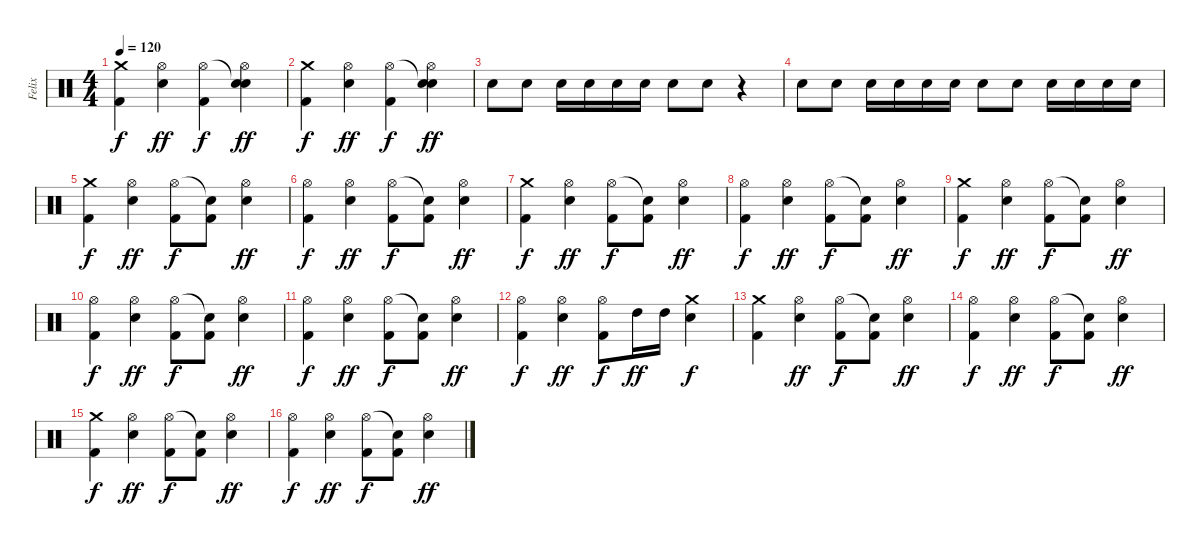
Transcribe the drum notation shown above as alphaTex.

\track ("Felix" "Felix") {instrument percussion}
\staff {score}
\articulation defaults
\ts (4 4)
\tempo 120
\clef neutral
\ks c
("Crash medium (hit)" "Kick (hit) 2").4{dy f} ("Hi-Hat (open)" "Electric Snare (hit)").4{dy ff} ("Hi-Hat (open)" "Kick (hit) 2").4{dy f} ("Snare (hit)"{t} "Hi-Hat (open)" "Electric Snare (hit)").4{dy ff} |
("Crash medium (hit)" "Kick (hit) 2").4{dy f} ("Hi-Hat (open)" "Electric Snare (hit)").4{dy ff} ("Hi-Hat (open)" "Kick (hit) 2").4{dy f} ("Snare (hit)"{t} "Hi-Hat (open)" "Electric Snare (hit)").4{dy ff} |
"Electric Snare (hit)".8 "Electric Snare (hit)".8 "Electric Snare (hit)".16 "Electric Snare (hit)".16 "Electric Snare (hit)".16 "Electric Snare (hit)".16 "Electric Snare (hit)".8 "Electric Snare (hit)".8 r.4 |
"Electric Snare (hit)".8 "Electric Snare (hit)".8 "Electric Snare (hit)".16 "Electric Snare (hit)".16 "Electric Snare (hit)".16 "Electric Snare (hit)".16 "Electric Snare (hit)".8 "Electric Snare (hit)".8 "Electric Snare (hit)".16 "Electric Snare (hit)".16 "Electric Snare (hit)".16 "Electric Snare (hit)".16 |
("Crash medium (hit)" "Kick (hit) 2").4{dy f} ("Hi-Hat (open)" "Electric Snare (hit)").4{dy ff} ("Hi-Hat (open)" "Kick (hit) 2").8{dy f} ("Snare (hit)"{t} "Kick (hit) 2").8 ("Hi-Hat (open)" "Electric Snare (hit)").4{dy ff} |
("Hi-Hat (open)" "Kick (hit) 2").4{dy f} ("Hi-Hat (open)" "Electric Snare (hit)").4{dy ff} ("Hi-Hat (open)" "Kick (hit) 2").8{dy f} ("Snare (hit)"{t} "Kick (hit) 2").8 ("Hi-Hat (open)" "Electric Snare (hit)").4{dy ff} |
("Crash medium (hit)" "Kick (hit) 2").4{dy f} ("Hi-Hat (open)" "Electric Snare (hit)").4{dy ff} ("Hi-Hat (open)" "Kick (hit) 2").8{dy f} ("Snare (hit)"{t} "Kick (hit) 2").8 ("Hi-Hat (open)" "Electric Snare (hit)").4{dy ff} |
("Hi-Hat (open)" "Kick (hit) 2").4{dy f} ("Hi-Hat (open)" "Electric Snare (hit)").4{dy ff} ("Hi-Hat (open)" "Kick (hit) 2").8{dy f} ("Snare (hit)"{t} "Kick (hit) 2").8 ("Hi-Hat (open)" "Electric Snare (hit)").4{dy ff} |
("Crash medium (hit)" "Kick (hit) 2").4{dy f} ("Hi-Hat (open)" "Electric Snare (hit)").4{dy ff} ("Hi-Hat (open)" "Kick (hit) 2").8{dy f} ("Snare (hit)"{t} "Kick (hit) 2").8 ("Hi-Hat (open)" "Electric Snare (hit)").4{dy ff} |
("Hi-Hat (open)" "Kick (hit) 2").4{dy f} ("Hi-Hat (open)" "Electric Snare (hit)").4{dy ff} ("Hi-Hat (open)" "Kick (hit) 2").8{dy f} ("Snare (hit)"{t} "Kick (hit) 2").8 ("Hi-Hat (open)" "Electric Snare (hit)").4{dy ff} |
("Hi-Hat (open)" "Kick (hit) 2").4{dy f} ("Hi-Hat (open)" "Electric Snare (hit)").4{dy ff} ("Hi-Hat (open)" "Kick (hit) 2").8{dy f} ("Snare (hit)"{t} "Kick (hit) 2").8 ("Hi-Hat (open)" "Electric Snare (hit)").4{dy ff} |
("Hi-Hat (open)" "Kick (hit) 2").4{dy f} ("Hi-Hat (open)" "Electric Snare (hit)").4{dy ff} ("Hi-Hat (open)" "Kick (hit) 2").8{dy f} "High Tom (hit)".16{dy ff} "High Tom (hit)".16 ("Crash medium (hit)" "Electric Snare (hit)").4{dy f} |
("Crash medium (hit)" "Kick (hit) 2").4 ("Hi-Hat (open)" "Electric Snare (hit)").4{dy ff} ("Hi-Hat (open)" "Kick (hit) 2").8{dy f} ("Snare (hit)"{t} "Kick (hit) 2").8 ("Hi-Hat (open)" "Electric Snare (hit)").4{dy ff} |
("Hi-Hat (open)" "Kick (hit) 2").4{dy f} ("Hi-Hat (open)" "Electric Snare (hit)").4{dy ff} ("Hi-Hat (open)" "Kick (hit) 2").8{dy f} ("Snare (hit)"{t} "Kick (hit) 2").8 ("Hi-Hat (open)" "Electric Snare (hit)").4{dy ff} |
("Crash medium (hit)" "Kick (hit) 2").4{dy f} ("Hi-Hat (open)" "Electric Snare (hit)").4{dy ff} ("Hi-Hat (open)" "Kick (hit) 2").8{dy f} ("Snare (hit)"{t} "Kick (hit) 2").8 ("Hi-Hat (open)" "Electric Snare (hit)").4{dy ff} |
("Hi-Hat (open)" "Kick (hit) 2").4{dy f} ("Hi-Hat (open)" "Electric Snare (hit)").4{dy ff} ("Hi-Hat (open)" "Kick (hit) 2").8{dy f} ("Snare (hit)"{t} "Kick (hit) 2").8 ("Hi-Hat (open)" "Electric Snare (hit)").4{dy ff}
